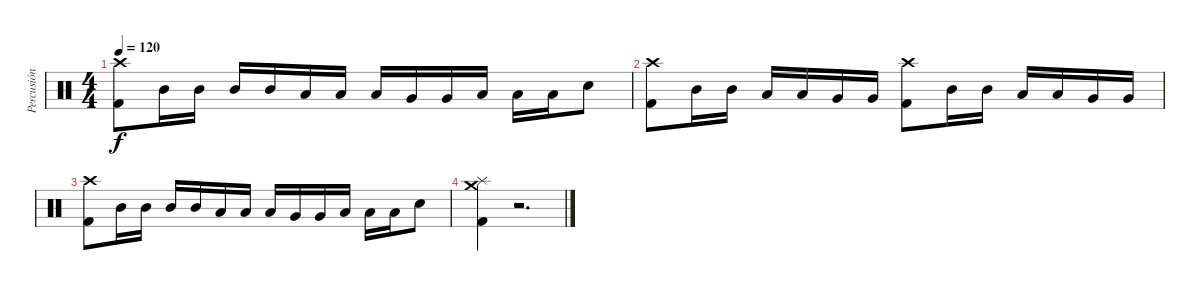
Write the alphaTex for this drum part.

\track ("Percusión" "Percusión") {instrument percussion}
\staff {score}
\articulation defaults
\ts (4 4)
\tempo 120
\clef neutral
\ks c
("Crash high (hit)" "Kick (hit) 2").8{dy f} "Mid Tom (hit)".16 "Mid Tom (hit)".16 "Mid Tom (hit)".16 "Mid Tom (hit)".16 "Low Tom (hit)".16 "Low Tom (hit)".16 "Low Tom (hit)".16 "Very Low Tom (hit)".16 "Very Low Tom (hit)".16 "Low Floor Tom (hit)".16 "Low Floor Tom (hit)".16 "Low Floor Tom (hit)".16 "Snare (hit) 2".8 |
("Crash high (hit)" "Kick (hit) 2").8 "Mid Tom (hit)".16 "Mid Tom (hit)".16 "Low Tom (hit)".16 "Low Tom (hit)".16 "Very Low Tom (hit)".16 "Very Low Tom (hit)".16 ("Crash high (hit)" "Kick (hit) 2").8 "Mid Tom (hit)".16 "Mid Tom (hit)".16 "Low Tom (hit)".16 "Low Tom (hit)".16 "Very Low Tom (hit)".16 "Very Low Tom (hit)".16 |
("Crash high (hit)" "Kick (hit) 2").8 "Mid Tom (hit)".16 "Mid Tom (hit)".16 "Mid Tom (hit)".16 "Mid Tom (hit)".16 "Low Tom (hit)".16 "Low Tom (hit)".16 "Low Tom (hit)".16 "Very Low Tom (hit)".16 "Very Low Tom (hit)".16 "Low Floor Tom (hit)".16 "Low Floor Tom (hit)".16 "Low Floor Tom (hit)".16 "Snare (hit) 2".8 |
("Splash (hit)" "Crash medium (hit)" "Kick (hit) 2").4 r.2{d}
